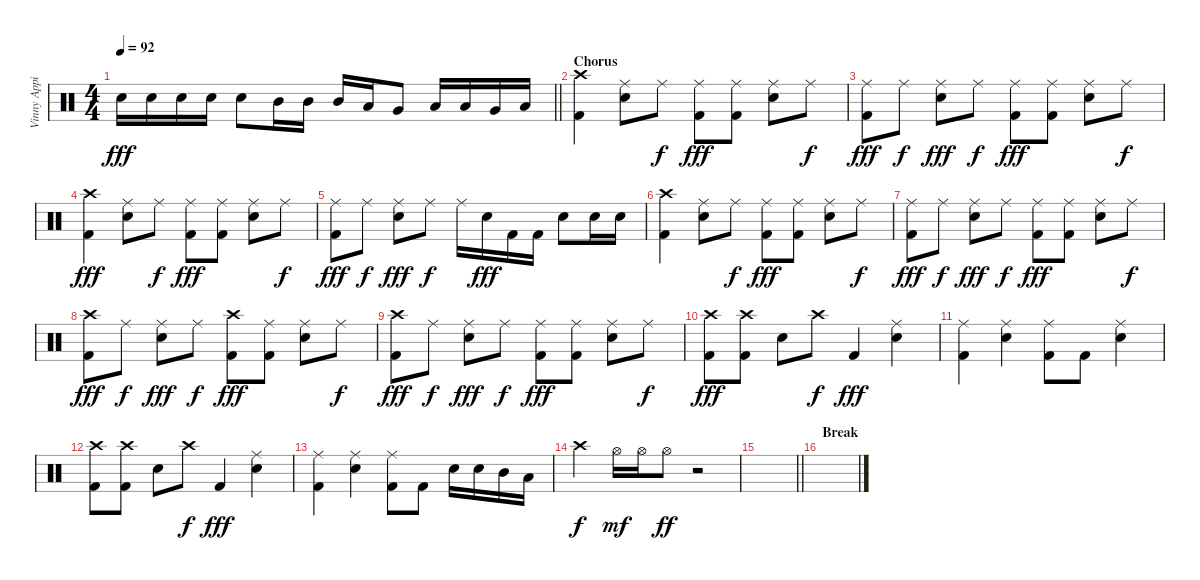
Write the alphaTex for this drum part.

\track ("Vinny Appice" "Vinny Appi") {instrument percussion}
\staff {score}
\articulation defaults
\ts (4 4)
\tempo 92
\clef neutral
\barLineRight lightlight
\ks c "Snare (hit) 2".16{dy fff} "Snare (hit) 2".16 "Snare (hit) 2".16 "Snare (hit) 2".16 "Snare (hit) 2".8 "Mid Tom (hit)".16 "Mid Tom (hit)".16 "Mid Tom (hit)".16 "Low Tom (hit)".16 "Very Low Tom (hit)".8 "Low Tom (hit)".16 "Low Tom (hit)".16 "Very Low Tom (hit)".16 "Low Floor Tom (hit)".16
|
\section ("" "Chorus")
("Crash high (hit)" "Kick (hit) 2").4 ("Ride (middle)" "Snare (hit) 2").8 "Ride (middle)".8{dy f} ("Ride (middle)" "Kick (hit) 2").8{dy fff} ("Ride (middle)" "Kick (hit) 2").8 ("Ride (middle)" "Snare (hit) 2").8 "Ride (middle)".8{dy f} |
("Ride (middle)" "Kick (hit) 2").8{dy fff} "Ride (middle)".8{dy f} ("Ride (middle)" "Snare (hit) 2").8{dy fff} "Ride (middle)".8{dy f} ("Ride (middle)" "Kick (hit) 2").8{dy fff} ("Ride (middle)" "Kick (hit) 2").8 ("Ride (middle)" "Snare (hit) 2").8 "Ride (middle)".8{dy f} |
("Crash high (hit)" "Kick (hit) 2").4{dy fff} ("Ride (middle)" "Snare (hit) 2").8 "Ride (middle)".8{dy f} ("Ride (middle)" "Kick (hit) 2").8{dy fff} ("Ride (middle)" "Kick (hit) 2").8 ("Ride (middle)" "Snare (hit) 2").8 "Ride (middle)".8{dy f} |
("Ride (middle)" "Kick (hit) 2").8{dy fff} "Ride (middle)".8{dy f} ("Ride (middle)" "Snare (hit) 2").8{dy fff} "Ride (middle)".8{dy f} "Ride (middle)".16 "Snare (hit) 2".16{dy fff} "Kick (hit) 2".16 "Kick (hit) 2".16 "Snare (hit) 2".8 "Snare (hit) 2".16 "Snare (hit) 2".16 |
("Crash high (hit)" "Kick (hit) 2").4 ("Ride (middle)" "Snare (hit) 2").8 "Ride (middle)".8{dy f} ("Ride (middle)" "Kick (hit) 2").8{dy fff} ("Ride (middle)" "Kick (hit) 2").8 ("Ride (middle)" "Snare (hit) 2").8 "Ride (middle)".8{dy f} |
("Ride (middle)" "Kick (hit) 2").8{dy fff} "Ride (middle)".8{dy f} ("Ride (middle)" "Snare (hit) 2").8{dy fff} "Ride (middle)".8{dy f} ("Ride (middle)" "Kick (hit) 2").8{dy fff} ("Ride (middle)" "Kick (hit) 2").8 ("Ride (middle)" "Snare (hit) 2").8 "Ride (middle)".8{dy f} |
("Crash high (hit)" "Kick (hit) 2").8{dy fff} "Ride (middle)".8{dy f} ("Ride (middle)" "Snare (hit) 2").8{dy fff} "Ride (middle)".8{dy f} ("Crash high (hit)" "Kick (hit) 2").8{dy fff} ("Ride (middle)" "Kick (hit) 2").8 ("Ride (middle)" "Snare (hit) 2").8 "Ride (middle)".8{dy f} |
("Crash high (hit)" "Kick (hit) 2").8{dy fff} "Ride (middle)".8{dy f} ("Ride (middle)" "Snare (hit) 2").8{dy fff} "Ride (middle)".8{dy f} ("Ride (middle)" "Kick (hit) 2").8{dy fff} ("Ride (middle)" "Kick (hit) 2").8 ("Ride (middle)" "Snare (hit) 2").8 "Ride (middle)".8{dy f} |
("Crash high (hit)" "Kick (hit) 2").8{dy fff} ("Crash high (hit)" "Kick (hit) 2").8 "Snare (hit) 2".8 "Crash high (hit)".8{dy f} "Kick (hit) 2".4{dy fff} ("Ride (middle)" "Snare (hit) 2").4 |
("Ride (middle)" "Kick (hit) 2").4 ("Ride (middle)" "Snare (hit) 2").4 ("Ride (middle)" "Kick (hit) 2").8 "Kick (hit) 2".8 ("Ride (middle)" "Snare (hit) 2").4 |
("Crash high (hit)" "Kick (hit) 2").8 ("Crash high (hit)" "Kick (hit) 2").8 "Snare (hit) 2".8 "Crash high (hit)".8{dy f} "Kick (hit) 2".4{dy fff} ("Ride (middle)" "Snare (hit) 2").4 |
("Ride (middle)" "Kick (hit) 2").4 ("Ride (middle)" "Snare (hit) 2").4 ("Ride (middle)" "Kick (hit) 2").8 "Kick (hit) 2".8 "Snare (hit) 2".16 "Snare (hit) 2".16 "Mid Tom (hit)".16 "Low Tom (hit)".16 |
"Crash high (hit)".4{dy f} "Hi-Hat (open)".16{dy mf} "Hi-Hat (open)".16 "Hi-Hat (open)".8{dy ff} r.2 |
\barLineRight lightlight
|
\section ("" "Break")
